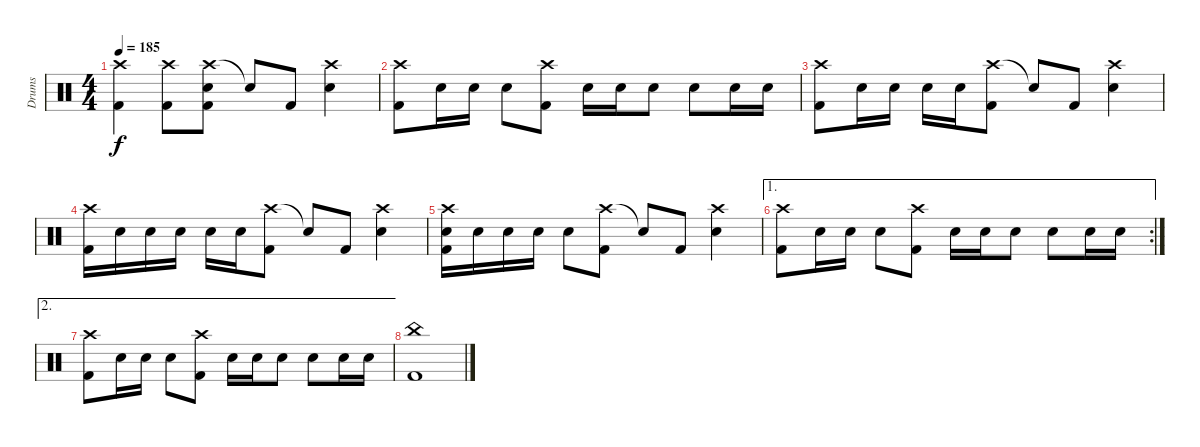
\track ("Drums" "Drums") {instrument percussion}
\staff {score}
\articulation defaults
\ts (4 4)
\tempo 185
\clef neutral
\ks c
("Crash high (hit)" "Kick (hit) 2").4{dy f} ("Crash high (hit)" "Kick (hit) 2").8 ("Crash high (hit)" "Electric Snare (hit)" "Kick (hit) 2").8 "Snare (hit)"{t}.8 "Kick (hit) 2".8 ("Crash high (hit)" "Electric Snare (hit)").4 |
("Crash high (hit)" "Kick (hit) 2").8 "Electric Snare (hit)".16 "Electric Snare (hit)".16 "Electric Snare (hit)".8 ("Crash high (hit)" "Kick (hit) 2").8 "Electric Snare (hit)".16 "Electric Snare (hit)".16 "Electric Snare (hit)".8 "Electric Snare (hit)".8 "Electric Snare (hit)".16 "Electric Snare (hit)".16 |
("Crash high (hit)" "Kick (hit) 2").8 "Electric Snare (hit)".16 "Electric Snare (hit)".16 "Electric Snare (hit)".16 "Electric Snare (hit)".16 ("Crash high (hit)" "Kick (hit) 2").8 "Snare (hit)"{t}.8 "Kick (hit) 2".8 ("Crash high (hit)" "Electric Snare (hit)").4 |
("Crash high (hit)" "Kick (hit) 2").16 "Electric Snare (hit)".16 "Electric Snare (hit)".16 "Electric Snare (hit)".16 "Electric Snare (hit)".16 "Electric Snare (hit)".16 ("Crash high (hit)" "Kick (hit) 2").8 "Snare (hit)"{t}.8 "Kick (hit) 2".8 ("Crash high (hit)" "Electric Snare (hit)").4 |
("Crash high (hit)" "Electric Snare (hit)" "Kick (hit) 2").16 "Electric Snare (hit)".16 "Electric Snare (hit)".16 "Electric Snare (hit)".16 "Electric Snare (hit)".8 ("Crash high (hit)" "Kick (hit) 2").8 "Snare (hit)"{t}.8 "Kick (hit) 2".8 ("Crash high (hit)" "Electric Snare (hit)").4 |
\ae 1
\rc 2
("Crash high (hit)" "Kick (hit) 2").8 "Electric Snare (hit)".16 "Electric Snare (hit)".16 "Electric Snare (hit)".8 ("Crash high (hit)" "Kick (hit) 2").8 "Electric Snare (hit)".16 "Electric Snare (hit)".16 "Electric Snare (hit)".8 "Electric Snare (hit)".8 "Electric Snare (hit)".16 "Electric Snare (hit)".16 |
\ae 2
("Crash high (hit)" "Kick (hit) 2").8 "Electric Snare (hit)".16 "Electric Snare (hit)".16 "Electric Snare (hit)".8 ("Crash high (hit)" "Kick (hit) 2").8 "Electric Snare (hit)".16 "Electric Snare (hit)".16 "Electric Snare (hit)".8 "Electric Snare (hit)".8 "Electric Snare (hit)".16 "Electric Snare (hit)".16 |
("China (hit)" "Kick (hit) 2").1
